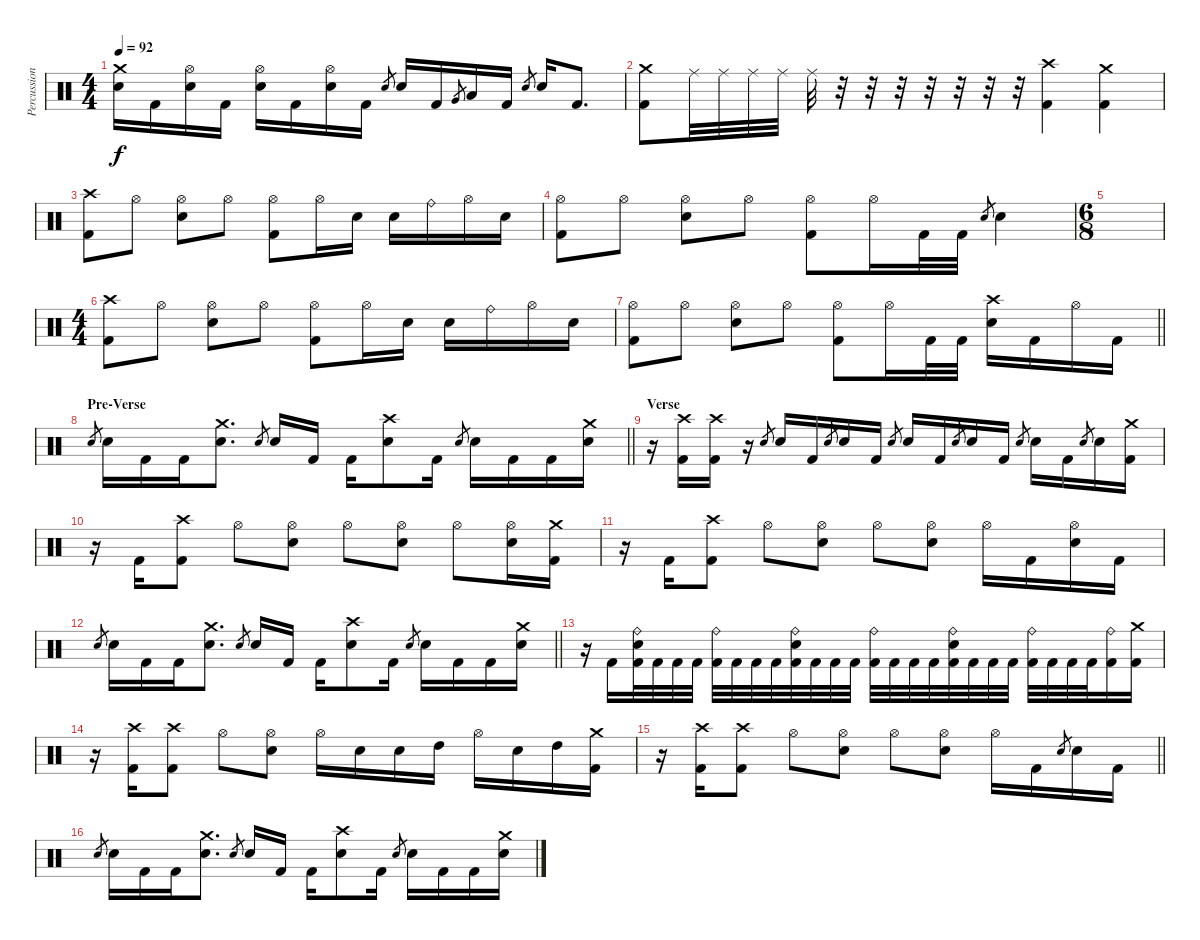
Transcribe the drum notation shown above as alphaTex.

\track ("Percussion" "Percussion") {instrument percussion}
\staff {score}
\articulation defaults
\ts (4 4)
\tempo 92
\clef neutral
\ks c
("Crash medium (hit)" "Electric Snare (hit)").16{dy f} "Kick (hit) 2".16 ("Hi-Hat (open)" "Electric Snare (hit)").16 "Kick (hit) 2".16 ("Hi-Hat (open)" "Electric Snare (hit)").16 "Kick (hit) 2".16 ("Hi-Hat (open)" "Electric Snare (hit)").16 "Kick (hit) 2".16 "Electric Snare (hit)".8{gr} "Electric Snare (hit)".16 "Kick (hit) 2".16 "Very Low Tom (hit)".8{gr} "Low Floor Tom (hit)".16 "Kick (hit) 2".16 "Electric Snare (hit)".8{gr} "Electric Snare (hit)".16 "Kick (hit) 2".8{d} |
("Crash medium (hit)" "Kick (hit) 2").8 "Ride (middle)".32 "Ride (middle)".32 "Ride (middle)".32 "Ride (middle)".32 "Ride (middle)".32 r.32 r.32 r.32 r.32 r.32 r.32 r.32 ("Crash high (hit)" "Kick (hit) 2").4 ("Crash medium (hit)" "Kick (hit) 2").4 |
("Crash high (hit)" "Kick (hit) 2").8 "Hi-Hat (open)".8 ("Hi-Hat (open)" "Electric Snare (hit)").8 "Hi-Hat (open)".8 ("Hi-Hat (open)" "Kick (hit) 2").8 "Hi-Hat (open)".16 "Electric Snare (hit)".16 "Electric Snare (hit)".16 "Ride (bell)".16 "Hi-Hat (open)".16 "Electric Snare (hit)".16 |
("Hi-Hat (open)" "Kick (hit) 2").8 "Hi-Hat (open)".8 ("Hi-Hat (open)" "Electric Snare (hit)").8 "Hi-Hat (open)".8 ("Hi-Hat (open)" "Kick (hit) 2").8 "Hi-Hat (open)".16 "Kick (hit) 2".32 "Kick (hit) 2".32 "Electric Snare (hit)".8{gr} "Electric Snare (hit)".4 |
\ts (6 8)
|
\ts (4 4)
("Crash high (hit)" "Kick (hit) 2").8 "Hi-Hat (open)".8 ("Hi-Hat (open)" "Electric Snare (hit)").8 "Hi-Hat (open)".8 ("Hi-Hat (open)" "Kick (hit) 2").8 "Hi-Hat (open)".16 "Electric Snare (hit)".16 "Electric Snare (hit)".16 "Ride (bell)".16 "Hi-Hat (open)".16 "Electric Snare (hit)".16 |
\barLineRight lightlight
("Hi-Hat (open)" "Kick (hit) 2").8 "Hi-Hat (open)".8 ("Hi-Hat (open)" "Electric Snare (hit)").8 "Hi-Hat (open)".8 ("Hi-Hat (open)" "Kick (hit) 2").8 "Hi-Hat (open)".16 "Kick (hit) 2".32 "Kick (hit) 2".32 ("Crash high (hit)" "Electric Snare (hit)").16 "Kick (hit) 2".16 "Hi-Hat (open)".16 "Kick (hit) 2".16 |
\section ("" "Pre-Verse")
\barLineRight lightlight "Electric Snare (hit)".8{gr} "Electric Snare (hit)".16 "Kick (hit) 2".16 "Kick (hit) 2".16
("Crash medium (hit)" "Electric Snare (hit)").8{d} "Electric Snare (hit)".8{gr} "Electric Snare (hit)".16 "Kick (hit) 2".16 "Kick (hit) 2".16 ("Crash high (hit)" "Electric Snare (hit)").8 "Kick (hit) 2".16 "Electric Snare (hit)".8{gr} "Electric Snare (hit)".16 "Kick (hit) 2".16 "Kick (hit) 2".16 ("Crash medium (hit)" "Electric Snare (hit)").16 |
\section ("" "Verse")
r.16 ("Crash high (hit)" "Kick (hit) 2").16 ("Crash high (hit)" "Kick (hit) 2").16 r.16 "Electric Snare (hit)".8{gr} "Electric Snare (hit)".16 "Kick (hit) 2".16 "Electric Snare (hit)".8{gr} "Electric Snare (hit)".16 "Kick (hit) 2".16 "Electric Snare (hit)".8{gr} "Electric Snare (hit)".16 "Kick (hit) 2".16 "Electric Snare (hit)".8{gr} "Electric Snare (hit)".16 "Kick (hit) 2".16 "Electric Snare (hit)".8{gr} "Electric Snare (hit)".16 "Kick (hit) 2".16 "Electric Snare (hit)".8{gr} "Electric Snare (hit)".16 ("Crash medium (hit)" "Kick (hit) 2").16 |
r.16 "Kick (hit) 2".16 ("Crash high (hit)" "Kick (hit) 2").8 "Hi-Hat (open)".8 ("Hi-Hat (open)" "Electric Snare (hit)").8 "Hi-Hat (open)".8 ("Hi-Hat (open)" "Electric Snare (hit)").8 "Hi-Hat (open)".8 ("Hi-Hat (open)" "Electric Snare (hit)").16 ("Crash medium (hit)" "Kick (hit) 2").16 |
r.16 "Kick (hit) 2".16 ("Crash high (hit)" "Kick (hit) 2").8 "Hi-Hat (open)".8 ("Hi-Hat (open)" "Electric Snare (hit)").8 "Hi-Hat (open)".8 ("Hi-Hat (open)" "Electric Snare (hit)").8 "Hi-Hat (open)".16 "Kick (hit) 2".16 ("Hi-Hat (open)" "Electric Snare (hit)").16 "Kick (hit) 2".16 |
\barLineRight lightlight "Electric Snare (hit)".8{gr} "Electric Snare (hit)".16 "Kick (hit) 2".16 "Kick (hit) 2".16
("Crash medium (hit)" "Electric Snare (hit)").8{d} "Electric Snare (hit)".8{gr} "Electric Snare (hit)".16 "Kick (hit) 2".16 "Kick (hit) 2".16 ("Crash high (hit)" "Electric Snare (hit)").8 "Kick (hit) 2".16 "Electric Snare (hit)".8{gr} "Electric Snare (hit)".16 "Kick (hit) 2".16 "Kick (hit) 2".16 ("Crash medium (hit)" "Electric Snare (hit)").16 |
r.16 "Kick (hit) 2".16 ("Ride (bell)" "Electric Snare (hit)" "Kick (hit) 2").32 "Kick (hit) 2".32 "Kick (hit) 2".32 "Kick (hit) 2".32 ("Ride (bell)" "Kick (hit) 2").32 "Kick (hit) 2".32 "Kick (hit) 2".32 "Kick (hit) 2".32 ("Ride (bell)" "Electric Snare (hit)" "Kick (hit) 2").32 "Kick (hit) 2".32 "Kick (hit) 2".32 "Kick (hit) 2".32 ("Ride (bell)" "Kick (hit) 2").32 "Kick (hit) 2".32 "Kick (hit) 2".32 "Kick (hit) 2".32 ("Ride (bell)" "Electric Snare (hit)" "Kick (hit) 2").32 "Kick (hit) 2".32 "Kick (hit) 2".32 "Kick (hit) 2".32 ("Ride (bell)" "Kick (hit) 2").32 "Kick (hit) 2".32 "Kick (hit) 2".32 "Kick (hit) 2".32 ("Ride (bell)" "Kick (hit) 2").16 ("Crash medium (hit)" "Kick (hit) 2").16 |
r.16 ("Crash high (hit)" "Kick (hit) 2").16 ("Crash high (hit)" "Kick (hit) 2").8 "Hi-Hat (open)".8 ("Hi-Hat (open)" "Electric Snare (hit)").8 "Hi-Hat (open)".16 "Electric Snare (hit)".16 "Electric Snare (hit)".16 "High Tom (hit)".16 "Hi-Hat (open)".16 "Electric Snare (hit)".16 "High Tom (hit)".16 ("Crash medium (hit)" "Kick (hit) 2").16 |
\barLineRight lightlight
r.16 ("Crash high (hit)" "Kick (hit) 2").16 ("Crash high (hit)" "Kick (hit) 2").8 "Hi-Hat (open)".8 ("Hi-Hat (open)" "Electric Snare (hit)").8 "Hi-Hat (open)".8 ("Hi-Hat (open)" "Electric Snare (hit)").8 "Hi-Hat (open)".16 "Kick (hit) 2".16 "Electric Snare (hit)".8{gr} "Electric Snare (hit)".16 "Kick (hit) 2".16 |
"Electric Snare (hit)".8{gr} "Electric Snare (hit)".16 "Kick (hit) 2".16 "Kick (hit) 2".16 ("Crash medium (hit)" "Electric Snare (hit)").8{d} "Electric Snare (hit)".8{gr} "Electric Snare (hit)".16 "Kick (hit) 2".16 "Kick (hit) 2".16 ("Crash high (hit)" "Electric Snare (hit)").8 "Kick (hit) 2".16 "Electric Snare (hit)".8{gr} "Electric Snare (hit)".16 "Kick (hit) 2".16 "Kick (hit) 2".16 ("Crash medium (hit)" "Electric Snare (hit)").16
